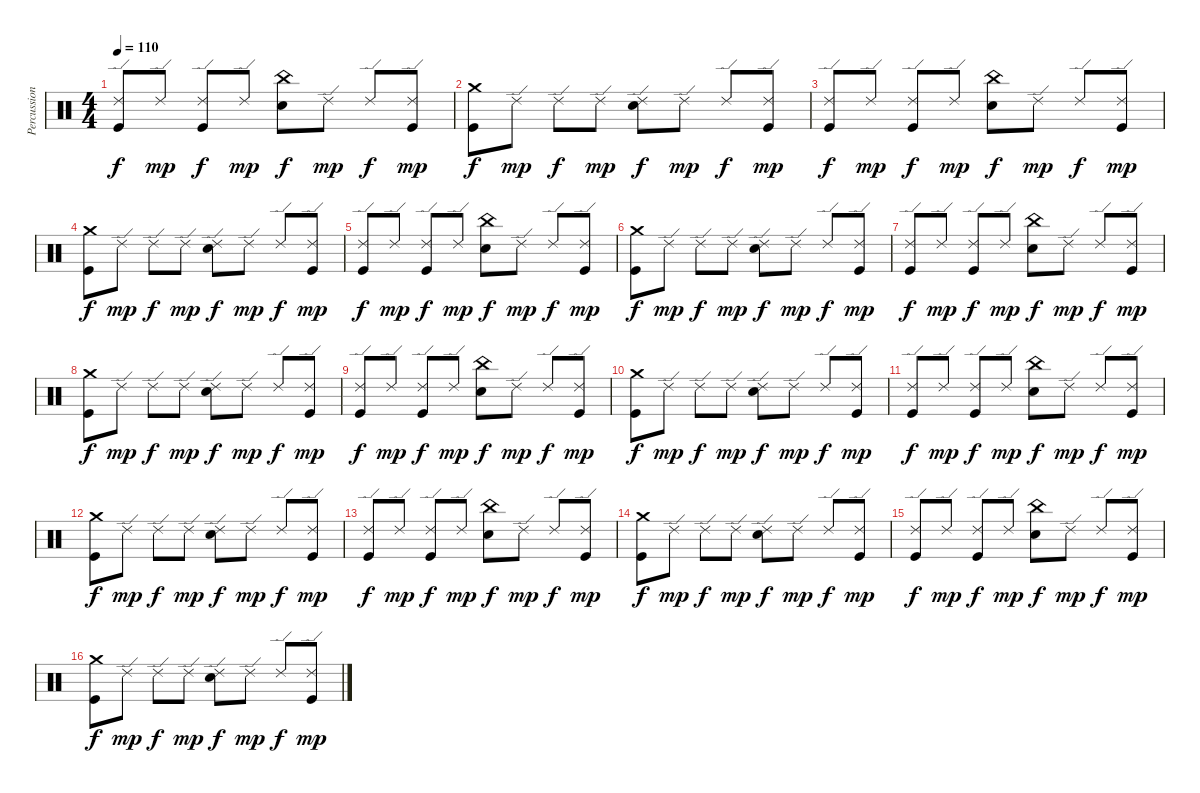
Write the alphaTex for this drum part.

\track ("Percussioni" "Percussion") {instrument percussion}
\staff {score}
\articulation defaults
\ts (4 4)
\tempo 110
\clef neutral
\ks c
("Ride (edge) 2" "Kick (hit)").8{dy f} "Ride (edge) 2".8{dy mp} ("Ride (edge) 2" "Kick (hit)").8{dy f} "Ride (edge) 2".8{dy mp} ("China (hit)" "Electric Snare (hit)").8{dy f} "Ride (edge) 2".8{dy mp} "Ride (edge) 2".8{dy f} ("Ride (edge) 2" "Kick (hit)").8{dy mp} |
("Crash medium (hit)" "Kick (hit)").8{dy f} "Ride (edge) 2".8{dy mp} "Ride (edge) 2".8{dy f} "Ride (edge) 2".8{dy mp} ("Ride (edge) 2" "Electric Snare (hit)").8{dy f} "Ride (edge) 2".8{dy mp} "Ride (edge) 2".8{dy f} ("Ride (edge) 2" "Kick (hit)").8{dy mp} |
("Ride (edge) 2" "Kick (hit)").8{dy f} "Ride (edge) 2".8{dy mp} ("Ride (edge) 2" "Kick (hit)").8{dy f} "Ride (edge) 2".8{dy mp} ("China (hit)" "Electric Snare (hit)").8{dy f} "Ride (edge) 2".8{dy mp} "Ride (edge) 2".8{dy f} ("Ride (edge) 2" "Kick (hit)").8{dy mp} |
("Crash medium (hit)" "Kick (hit)").8{dy f} "Ride (edge) 2".8{dy mp} "Ride (edge) 2".8{dy f} "Ride (edge) 2".8{dy mp} ("Ride (edge) 2" "Electric Snare (hit)").8{dy f} "Ride (edge) 2".8{dy mp} "Ride (edge) 2".8{dy f} ("Ride (edge) 2" "Kick (hit)").8{dy mp} |
("Ride (edge) 2" "Kick (hit)").8{dy f} "Ride (edge) 2".8{dy mp} ("Ride (edge) 2" "Kick (hit)").8{dy f} "Ride (edge) 2".8{dy mp} ("China (hit)" "Electric Snare (hit)").8{dy f} "Ride (edge) 2".8{dy mp} "Ride (edge) 2".8{dy f} ("Ride (edge) 2" "Kick (hit)").8{dy mp} |
("Crash medium (hit)" "Kick (hit)").8{dy f} "Ride (edge) 2".8{dy mp} "Ride (edge) 2".8{dy f} "Ride (edge) 2".8{dy mp} ("Ride (edge) 2" "Electric Snare (hit)").8{dy f} "Ride (edge) 2".8{dy mp} "Ride (edge) 2".8{dy f} ("Ride (edge) 2" "Kick (hit)").8{dy mp} |
("Ride (edge) 2" "Kick (hit)").8{dy f} "Ride (edge) 2".8{dy mp} ("Ride (edge) 2" "Kick (hit)").8{dy f} "Ride (edge) 2".8{dy mp} ("China (hit)" "Electric Snare (hit)").8{dy f} "Ride (edge) 2".8{dy mp} "Ride (edge) 2".8{dy f} ("Ride (edge) 2" "Kick (hit)").8{dy mp} |
("Crash medium (hit)" "Kick (hit)").8{dy f} "Ride (edge) 2".8{dy mp} "Ride (edge) 2".8{dy f} "Ride (edge) 2".8{dy mp} ("Ride (edge) 2" "Electric Snare (hit)").8{dy f} "Ride (edge) 2".8{dy mp} "Ride (edge) 2".8{dy f} ("Ride (edge) 2" "Kick (hit)").8{dy mp} |
("Ride (edge) 2" "Kick (hit)").8{dy f} "Ride (edge) 2".8{dy mp} ("Ride (edge) 2" "Kick (hit)").8{dy f} "Ride (edge) 2".8{dy mp} ("China (hit)" "Electric Snare (hit)").8{dy f} "Ride (edge) 2".8{dy mp} "Ride (edge) 2".8{dy f} ("Ride (edge) 2" "Kick (hit)").8{dy mp} |
("Crash medium (hit)" "Kick (hit)").8{dy f} "Ride (edge) 2".8{dy mp} "Ride (edge) 2".8{dy f} "Ride (edge) 2".8{dy mp} ("Ride (edge) 2" "Electric Snare (hit)").8{dy f} "Ride (edge) 2".8{dy mp} "Ride (edge) 2".8{dy f} ("Ride (edge) 2" "Kick (hit)").8{dy mp} |
("Ride (edge) 2" "Kick (hit)").8{dy f} "Ride (edge) 2".8{dy mp} ("Ride (edge) 2" "Kick (hit)").8{dy f} "Ride (edge) 2".8{dy mp} ("China (hit)" "Electric Snare (hit)").8{dy f} "Ride (edge) 2".8{dy mp} "Ride (edge) 2".8{dy f} ("Ride (edge) 2" "Kick (hit)").8{dy mp} |
("Crash medium (hit)" "Kick (hit)").8{dy f} "Ride (edge) 2".8{dy mp} "Ride (edge) 2".8{dy f} "Ride (edge) 2".8{dy mp} ("Ride (edge) 2" "Electric Snare (hit)").8{dy f} "Ride (edge) 2".8{dy mp} "Ride (edge) 2".8{dy f} ("Ride (edge) 2" "Kick (hit)").8{dy mp} |
("Ride (edge) 2" "Kick (hit)").8{dy f} "Ride (edge) 2".8{dy mp} ("Ride (edge) 2" "Kick (hit)").8{dy f} "Ride (edge) 2".8{dy mp} ("China (hit)" "Electric Snare (hit)").8{dy f} "Ride (edge) 2".8{dy mp} "Ride (edge) 2".8{dy f} ("Ride (edge) 2" "Kick (hit)").8{dy mp} |
("Crash medium (hit)" "Kick (hit)").8{dy f} "Ride (edge) 2".8{dy mp} "Ride (edge) 2".8{dy f} "Ride (edge) 2".8{dy mp} ("Ride (edge) 2" "Electric Snare (hit)").8{dy f} "Ride (edge) 2".8{dy mp} "Ride (edge) 2".8{dy f} ("Ride (edge) 2" "Kick (hit)").8{dy mp} |
("Ride (edge) 2" "Kick (hit)").8{dy f} "Ride (edge) 2".8{dy mp} ("Ride (edge) 2" "Kick (hit)").8{dy f} "Ride (edge) 2".8{dy mp} ("China (hit)" "Electric Snare (hit)").8{dy f} "Ride (edge) 2".8{dy mp} "Ride (edge) 2".8{dy f} ("Ride (edge) 2" "Kick (hit)").8{dy mp} |
("Crash medium (hit)" "Kick (hit)").8{dy f} "Ride (edge) 2".8{dy mp} "Ride (edge) 2".8{dy f} "Ride (edge) 2".8{dy mp} ("Ride (edge) 2" "Electric Snare (hit)").8{dy f} "Ride (edge) 2".8{dy mp} "Ride (edge) 2".8{dy f} ("Ride (edge) 2" "Kick (hit)").8{dy mp}
